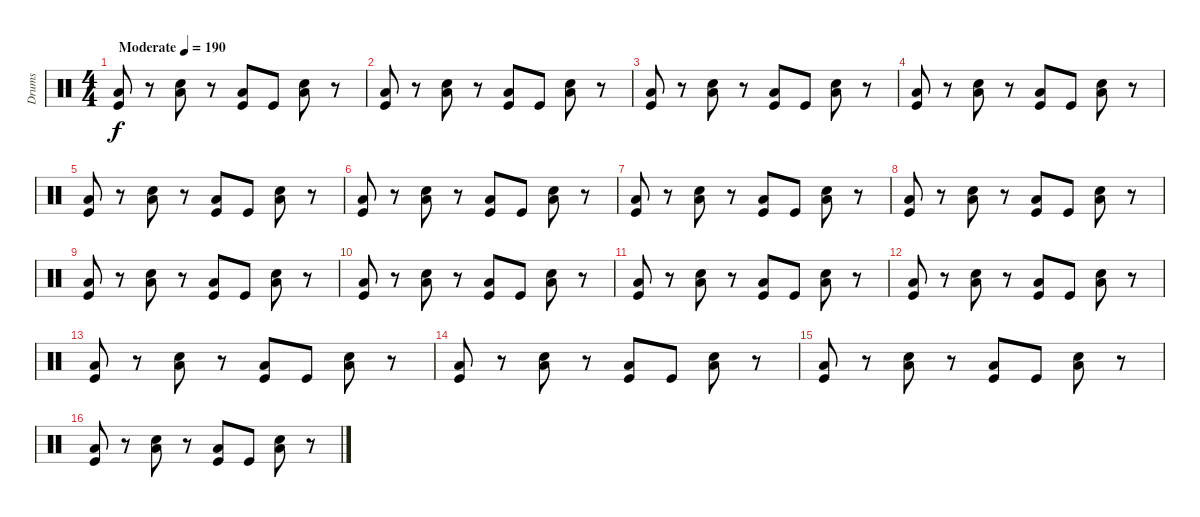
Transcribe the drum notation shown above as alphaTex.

\track ("Drums" "Drums") {instrument percussion}
\staff {score}
\articulation defaults
\ts (4 4)
\tempo (190 "Moderate")
\clef neutral
\ks c
("Low Floor Tom (hit)" "Kick (hit)").8{dy f} r.8 ("Low Floor Tom (hit)" "Snare (hit) 2").8 r.8 ("Low Floor Tom (hit)" "Kick (hit)").8 "Kick (hit)".8 ("Low Floor Tom (hit)" "Snare (hit) 2").8 r.8 |
("Low Floor Tom (hit)" "Kick (hit)").8 r.8 ("Low Floor Tom (hit)" "Snare (hit) 2").8 r.8 ("Low Floor Tom (hit)" "Kick (hit)").8 "Kick (hit)".8 ("Low Floor Tom (hit)" "Snare (hit) 2").8 r.8 |
("Low Floor Tom (hit)" "Kick (hit)").8 r.8 ("Low Floor Tom (hit)" "Snare (hit) 2").8 r.8 ("Low Floor Tom (hit)" "Kick (hit)").8 "Kick (hit)".8 ("Low Floor Tom (hit)" "Snare (hit) 2").8 r.8 |
("Low Floor Tom (hit)" "Kick (hit)").8 r.8 ("Low Floor Tom (hit)" "Snare (hit) 2").8 r.8 ("Low Floor Tom (hit)" "Kick (hit)").8 "Kick (hit)".8 ("Low Floor Tom (hit)" "Snare (hit) 2").8 r.8 |
("Low Floor Tom (hit)" "Kick (hit)").8 r.8 ("Low Floor Tom (hit)" "Snare (hit) 2").8 r.8 ("Low Floor Tom (hit)" "Kick (hit)").8 "Kick (hit)".8 ("Low Floor Tom (hit)" "Snare (hit) 2").8 r.8 |
("Low Floor Tom (hit)" "Kick (hit)").8 r.8 ("Low Floor Tom (hit)" "Snare (hit) 2").8 r.8 ("Low Floor Tom (hit)" "Kick (hit)").8 "Kick (hit)".8 ("Low Floor Tom (hit)" "Snare (hit) 2").8 r.8 |
("Low Floor Tom (hit)" "Kick (hit)").8 r.8 ("Low Floor Tom (hit)" "Snare (hit) 2").8 r.8 ("Low Floor Tom (hit)" "Kick (hit)").8 "Kick (hit)".8 ("Low Floor Tom (hit)" "Snare (hit) 2").8 r.8 |
("Low Floor Tom (hit)" "Kick (hit)").8 r.8 ("Low Floor Tom (hit)" "Snare (hit) 2").8 r.8 ("Low Floor Tom (hit)" "Kick (hit)").8 "Kick (hit)".8 ("Low Floor Tom (hit)" "Snare (hit) 2").8 r.8 |
("Low Floor Tom (hit)" "Kick (hit)").8 r.8 ("Low Floor Tom (hit)" "Snare (hit) 2").8 r.8 ("Low Floor Tom (hit)" "Kick (hit)").8 "Kick (hit)".8 ("Low Floor Tom (hit)" "Snare (hit) 2").8 r.8 |
("Low Floor Tom (hit)" "Kick (hit)").8 r.8 ("Low Floor Tom (hit)" "Snare (hit) 2").8 r.8 ("Low Floor Tom (hit)" "Kick (hit)").8 "Kick (hit)".8 ("Low Floor Tom (hit)" "Snare (hit) 2").8 r.8 |
("Low Floor Tom (hit)" "Kick (hit)").8 r.8 ("Low Floor Tom (hit)" "Snare (hit) 2").8 r.8 ("Low Floor Tom (hit)" "Kick (hit)").8 "Kick (hit)".8 ("Low Floor Tom (hit)" "Snare (hit) 2").8 r.8 |
("Low Floor Tom (hit)" "Kick (hit)").8 r.8 ("Low Floor Tom (hit)" "Snare (hit) 2").8 r.8 ("Low Floor Tom (hit)" "Kick (hit)").8 "Kick (hit)".8 ("Low Floor Tom (hit)" "Snare (hit) 2").8 r.8 |
("Low Floor Tom (hit)" "Kick (hit)").8 r.8 ("Low Floor Tom (hit)" "Snare (hit) 2").8 r.8 ("Low Floor Tom (hit)" "Kick (hit)").8 "Kick (hit)".8 ("Low Floor Tom (hit)" "Snare (hit) 2").8 r.8 |
("Low Floor Tom (hit)" "Kick (hit)").8 r.8 ("Low Floor Tom (hit)" "Snare (hit) 2").8 r.8 ("Low Floor Tom (hit)" "Kick (hit)").8 "Kick (hit)".8 ("Low Floor Tom (hit)" "Snare (hit) 2").8 r.8 |
("Low Floor Tom (hit)" "Kick (hit)").8 r.8 ("Low Floor Tom (hit)" "Snare (hit) 2").8 r.8 ("Low Floor Tom (hit)" "Kick (hit)").8 "Kick (hit)".8 ("Low Floor Tom (hit)" "Snare (hit) 2").8 r.8 |
("Low Floor Tom (hit)" "Kick (hit)").8 r.8 ("Low Floor Tom (hit)" "Snare (hit) 2").8 r.8 ("Low Floor Tom (hit)" "Kick (hit)").8 "Kick (hit)".8 ("Low Floor Tom (hit)" "Snare (hit) 2").8 r.8
